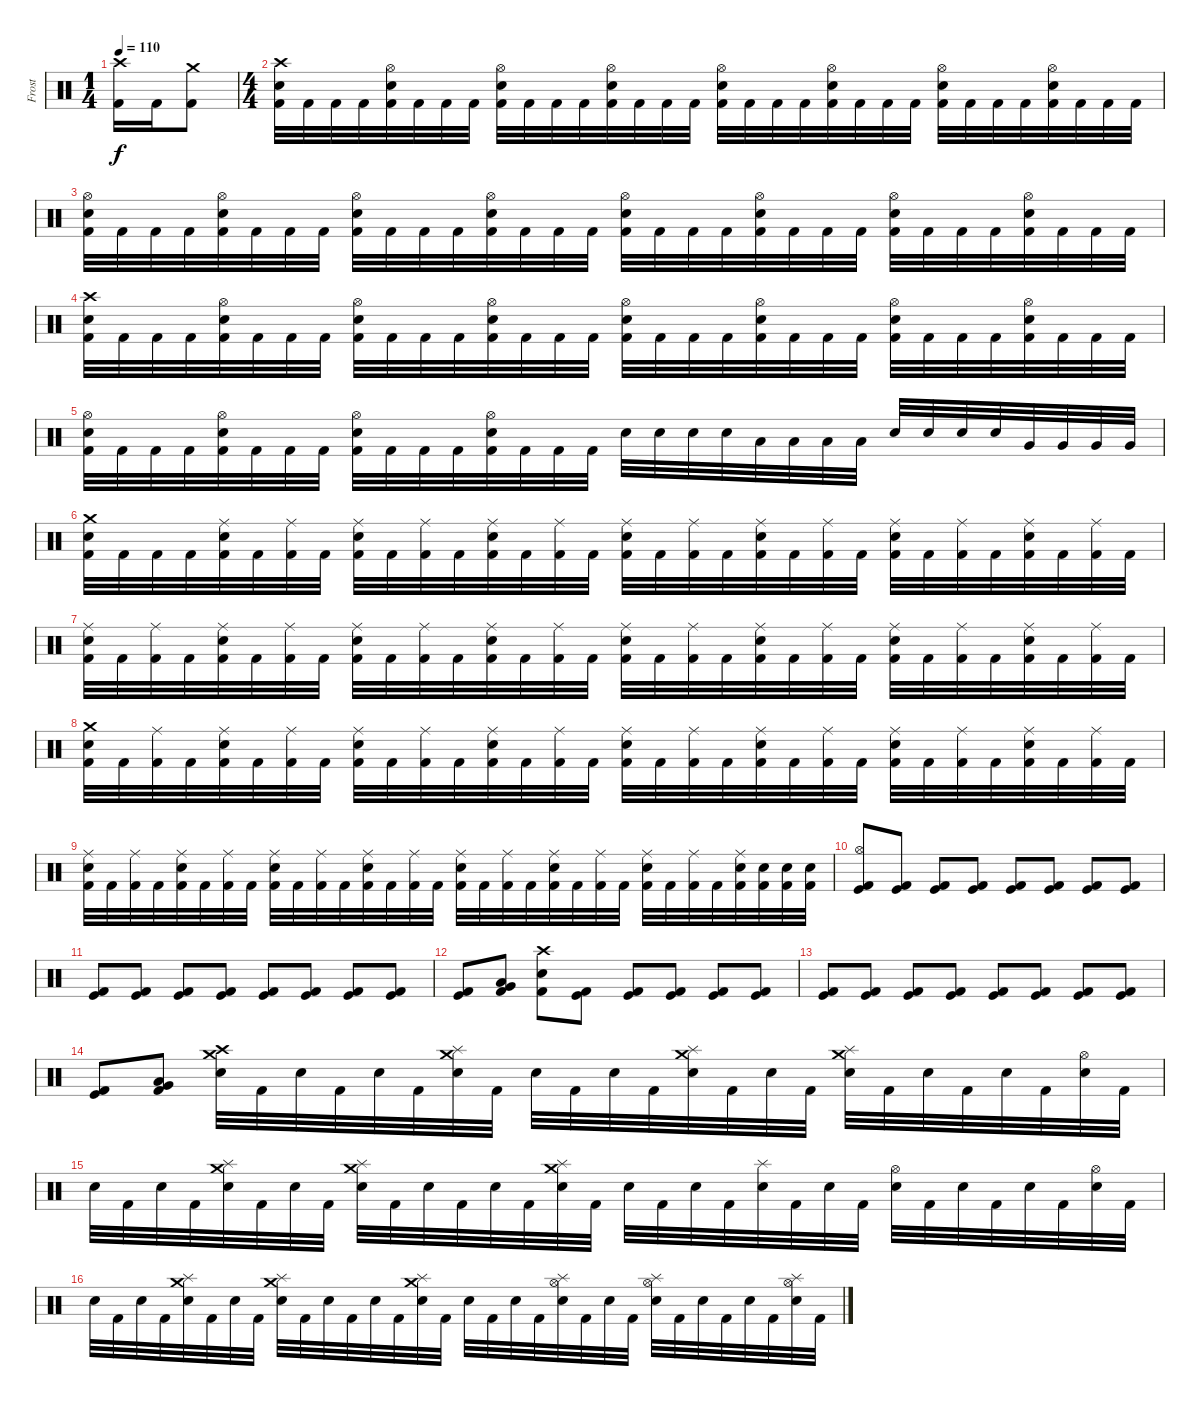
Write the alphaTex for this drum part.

\track ("Frost" "Frost") {instrument percussion}
\staff {score}
\articulation defaults
\ts (1 4)
\tempo 110
\clef neutral
\ks c
("Crash high (hit)" "Kick (hit) 2").16{dy f} "Kick (hit) 2".16 ("Crash medium (hit)" "Kick (hit) 2").8 |
\ts (4 4)
("Crash high (hit)" "Snare (hit) 2" "Kick (hit) 2").32 "Kick (hit) 2".32 "Kick (hit) 2".32 "Kick (hit) 2".32 ("Hi-Hat (open)" "Snare (hit) 2" "Kick (hit) 2").32 "Kick (hit) 2".32 "Kick (hit) 2".32 "Kick (hit) 2".32 ("Hi-Hat (open)" "Snare (hit) 2" "Kick (hit) 2").32 "Kick (hit) 2".32 "Kick (hit) 2".32 "Kick (hit) 2".32 ("Hi-Hat (open)" "Snare (hit) 2" "Kick (hit) 2").32 "Kick (hit) 2".32 "Kick (hit) 2".32 "Kick (hit) 2".32 ("Hi-Hat (open)" "Snare (hit) 2" "Kick (hit) 2").32 "Kick (hit) 2".32 "Kick (hit) 2".32 "Kick (hit) 2".32 ("Hi-Hat (open)" "Snare (hit) 2" "Kick (hit) 2").32 "Kick (hit) 2".32 "Kick (hit) 2".32 "Kick (hit) 2".32 ("Hi-Hat (open)" "Snare (hit) 2" "Kick (hit) 2").32 "Kick (hit) 2".32 "Kick (hit) 2".32 "Kick (hit) 2".32 ("Hi-Hat (open)" "Snare (hit) 2" "Kick (hit) 2").32 "Kick (hit) 2".32 "Kick (hit) 2".32 "Kick (hit) 2".32 |
("Hi-Hat (open)" "Snare (hit) 2" "Kick (hit) 2").32 "Kick (hit) 2".32 "Kick (hit) 2".32 "Kick (hit) 2".32 ("Hi-Hat (open)" "Snare (hit) 2" "Kick (hit) 2").32 "Kick (hit) 2".32 "Kick (hit) 2".32 "Kick (hit) 2".32 ("Hi-Hat (open)" "Snare (hit) 2" "Kick (hit) 2").32 "Kick (hit) 2".32 "Kick (hit) 2".32 "Kick (hit) 2".32 ("Hi-Hat (open)" "Snare (hit) 2" "Kick (hit) 2").32 "Kick (hit) 2".32 "Kick (hit) 2".32 "Kick (hit) 2".32 ("Hi-Hat (open)" "Snare (hit) 2" "Kick (hit) 2").32 "Kick (hit) 2".32 "Kick (hit) 2".32 "Kick (hit) 2".32 ("Hi-Hat (open)" "Snare (hit) 2" "Kick (hit) 2").32 "Kick (hit) 2".32 "Kick (hit) 2".32 "Kick (hit) 2".32 ("Hi-Hat (open)" "Snare (hit) 2" "Kick (hit) 2").32 "Kick (hit) 2".32 "Kick (hit) 2".32 "Kick (hit) 2".32 ("Hi-Hat (open)" "Snare (hit) 2" "Kick (hit) 2").32 "Kick (hit) 2".32 "Kick (hit) 2".32 "Kick (hit) 2".32 |
("Crash high (hit)" "Snare (hit) 2" "Kick (hit) 2").32 "Kick (hit) 2".32 "Kick (hit) 2".32 "Kick (hit) 2".32 ("Hi-Hat (open)" "Snare (hit) 2" "Kick (hit) 2").32 "Kick (hit) 2".32 "Kick (hit) 2".32 "Kick (hit) 2".32 ("Hi-Hat (open)" "Snare (hit) 2" "Kick (hit) 2").32 "Kick (hit) 2".32 "Kick (hit) 2".32 "Kick (hit) 2".32 ("Hi-Hat (open)" "Snare (hit) 2" "Kick (hit) 2").32 "Kick (hit) 2".32 "Kick (hit) 2".32 "Kick (hit) 2".32 ("Hi-Hat (open)" "Snare (hit) 2" "Kick (hit) 2").32 "Kick (hit) 2".32 "Kick (hit) 2".32 "Kick (hit) 2".32 ("Hi-Hat (open)" "Snare (hit) 2" "Kick (hit) 2").32 "Kick (hit) 2".32 "Kick (hit) 2".32 "Kick (hit) 2".32 ("Hi-Hat (open)" "Snare (hit) 2" "Kick (hit) 2").32 "Kick (hit) 2".32 "Kick (hit) 2".32 "Kick (hit) 2".32 ("Hi-Hat (open)" "Snare (hit) 2" "Kick (hit) 2").32 "Kick (hit) 2".32 "Kick (hit) 2".32 "Kick (hit) 2".32 |
("Hi-Hat (open)" "Snare (hit) 2" "Kick (hit) 2").32 "Kick (hit) 2".32 "Kick (hit) 2".32 "Kick (hit) 2".32 ("Hi-Hat (open)" "Snare (hit) 2" "Kick (hit) 2").32 "Kick (hit) 2".32 "Kick (hit) 2".32 "Kick (hit) 2".32 ("Hi-Hat (open)" "Snare (hit) 2" "Kick (hit) 2").32 "Kick (hit) 2".32 "Kick (hit) 2".32 "Kick (hit) 2".32 ("Hi-Hat (open)" "Snare (hit) 2" "Kick (hit) 2").32 "Kick (hit) 2".32 "Kick (hit) 2".32 "Kick (hit) 2".32 "Snare (hit) 2".32 "Snare (hit) 2".32 "Snare (hit) 2".32 "Snare (hit) 2".32 "Low Tom (hit)".32 "Low Tom (hit)".32 "Low Tom (hit)".32 "Low Tom (hit)".32 "Snare (hit) 2".32 "Snare (hit) 2".32 "Snare (hit) 2".32 "Snare (hit) 2".32 "Very Low Tom (hit)".32 "Very Low Tom (hit)".32 "Very Low Tom (hit)".32 "Very Low Tom (hit)".32 |
("Crash medium (hit)" "Snare (hit) 2" "Kick (hit) 2").32 "Kick (hit) 2".32 "Kick (hit) 2".32 "Kick (hit) 2".32 ("Ride (middle)" "Snare (hit) 2" "Kick (hit) 2").32 "Kick (hit) 2".32 ("Ride (middle)" "Kick (hit) 2").32 "Kick (hit) 2".32 ("Ride (middle)" "Snare (hit) 2" "Kick (hit) 2").32 "Kick (hit) 2".32 ("Ride (middle)" "Kick (hit) 2").32 "Kick (hit) 2".32 ("Ride (middle)" "Snare (hit) 2" "Kick (hit) 2").32 "Kick (hit) 2".32 ("Ride (middle)" "Kick (hit) 2").32 "Kick (hit) 2".32 ("Ride (middle)" "Snare (hit) 2" "Kick (hit) 2").32 "Kick (hit) 2".32 ("Ride (middle)" "Kick (hit) 2").32 "Kick (hit) 2".32 ("Ride (middle)" "Snare (hit) 2" "Kick (hit) 2").32 "Kick (hit) 2".32 ("Ride (middle)" "Kick (hit) 2").32 "Kick (hit) 2".32 ("Ride (middle)" "Snare (hit) 2" "Kick (hit) 2").32 "Kick (hit) 2".32 ("Ride (middle)" "Kick (hit) 2").32 "Kick (hit) 2".32 ("Ride (middle)" "Snare (hit) 2" "Kick (hit) 2").32 "Kick (hit) 2".32 ("Ride (middle)" "Kick (hit) 2").32 "Kick (hit) 2".32 |
("Ride (middle)" "Snare (hit) 2" "Kick (hit) 2").32 "Kick (hit) 2".32 ("Ride (middle)" "Kick (hit) 2").32 "Kick (hit) 2".32 ("Ride (middle)" "Snare (hit) 2" "Kick (hit) 2").32 "Kick (hit) 2".32 ("Ride (middle)" "Kick (hit) 2").32 "Kick (hit) 2".32 ("Ride (middle)" "Snare (hit) 2" "Kick (hit) 2").32 "Kick (hit) 2".32 ("Ride (middle)" "Kick (hit) 2").32 "Kick (hit) 2".32 ("Ride (middle)" "Snare (hit) 2" "Kick (hit) 2").32 "Kick (hit) 2".32 ("Ride (middle)" "Kick (hit) 2").32 "Kick (hit) 2".32 ("Ride (middle)" "Snare (hit) 2" "Kick (hit) 2").32 "Kick (hit) 2".32 ("Ride (middle)" "Kick (hit) 2").32 "Kick (hit) 2".32 ("Ride (middle)" "Snare (hit) 2" "Kick (hit) 2").32 "Kick (hit) 2".32 ("Ride (middle)" "Kick (hit) 2").32 "Kick (hit) 2".32 ("Ride (middle)" "Snare (hit) 2" "Kick (hit) 2").32 "Kick (hit) 2".32 ("Ride (middle)" "Kick (hit) 2").32 "Kick (hit) 2".32 ("Ride (middle)" "Snare (hit) 2" "Kick (hit) 2").32 "Kick (hit) 2".32 ("Ride (middle)" "Kick (hit) 2").32 "Kick (hit) 2".32 |
("Crash medium (hit)" "Snare (hit) 2" "Kick (hit) 2").32 "Kick (hit) 2".32 ("Ride (middle)" "Kick (hit) 2").32 "Kick (hit) 2".32 ("Ride (middle)" "Snare (hit) 2" "Kick (hit) 2").32 "Kick (hit) 2".32 ("Ride (middle)" "Kick (hit) 2").32 "Kick (hit) 2".32 ("Ride (middle)" "Snare (hit) 2" "Kick (hit) 2").32 "Kick (hit) 2".32 ("Ride (middle)" "Kick (hit) 2").32 "Kick (hit) 2".32 ("Ride (middle)" "Snare (hit) 2" "Kick (hit) 2").32 "Kick (hit) 2".32 ("Ride (middle)" "Kick (hit) 2").32 "Kick (hit) 2".32 ("Ride (middle)" "Snare (hit) 2" "Kick (hit) 2").32 "Kick (hit) 2".32 ("Ride (middle)" "Kick (hit) 2").32 "Kick (hit) 2".32 ("Ride (middle)" "Snare (hit) 2" "Kick (hit) 2").32 "Kick (hit) 2".32 ("Ride (middle)" "Kick (hit) 2").32 "Kick (hit) 2".32 ("Ride (middle)" "Snare (hit) 2" "Kick (hit) 2").32 "Kick (hit) 2".32 ("Ride (middle)" "Kick (hit) 2").32 "Kick (hit) 2".32 ("Ride (middle)" "Snare (hit) 2" "Kick (hit) 2").32 "Kick (hit) 2".32 ("Ride (middle)" "Kick (hit) 2").32 "Kick (hit) 2".32 |
("Ride (middle)" "Snare (hit) 2" "Kick (hit) 2").32 "Kick (hit) 2".32 ("Ride (middle)" "Kick (hit) 2").32 "Kick (hit) 2".32 ("Ride (middle)" "Snare (hit) 2" "Kick (hit) 2").32 "Kick (hit) 2".32 ("Ride (middle)" "Kick (hit) 2").32 "Kick (hit) 2".32 ("Ride (middle)" "Snare (hit) 2" "Kick (hit) 2").32 "Kick (hit) 2".32 ("Ride (middle)" "Kick (hit) 2").32 "Kick (hit) 2".32 ("Ride (middle)" "Snare (hit) 2" "Kick (hit) 2").32 "Kick (hit) 2".32 ("Ride (middle)" "Kick (hit) 2").32 "Kick (hit) 2".32 ("Ride (middle)" "Snare (hit) 2" "Kick (hit) 2").32 "Kick (hit) 2".32 ("Ride (middle)" "Kick (hit) 2").32 "Kick (hit) 2".32 ("Ride (middle)" "Snare (hit) 2" "Kick (hit) 2").32 "Kick (hit) 2".32 ("Ride (middle)" "Kick (hit) 2").32 "Kick (hit) 2".32 ("Ride (middle)" "Snare (hit) 2" "Kick (hit) 2").32 "Kick (hit) 2".32 ("Ride (middle)" "Kick (hit) 2").32 "Kick (hit) 2".32 ("Ride (middle)" "Snare (hit) 2" "Kick (hit) 2").32 ("Snare (hit) 2" "Kick (hit) 2").32 ("Snare (hit) 2" "Kick (hit) 2").32 ("Snare (hit) 2" "Kick (hit) 2").32 |
("Hi-Hat (open)" "Kick (hit)" "Kick (hit) 2").8 ("Kick (hit)" "Kick (hit) 2").8 ("Kick (hit)" "Kick (hit) 2").8 ("Kick (hit)" "Kick (hit) 2").8 ("Kick (hit)" "Kick (hit) 2").8 ("Kick (hit)" "Kick (hit) 2").8 ("Kick (hit)" "Kick (hit) 2").8 ("Kick (hit)" "Kick (hit) 2").8 |
("Kick (hit)" "Kick (hit) 2").8 ("Kick (hit)" "Kick (hit) 2").8 ("Kick (hit)" "Kick (hit) 2").8 ("Kick (hit)" "Kick (hit) 2").8 ("Kick (hit)" "Kick (hit) 2").8 ("Kick (hit)" "Kick (hit) 2").8 ("Kick (hit)" "Kick (hit) 2").8 ("Kick (hit)" "Kick (hit) 2").8 |
("Kick (hit)" "Kick (hit) 2").8 ("Low Tom (hit)" "Very Low Tom (hit)" "Kick (hit) 2").8 ("Crash high (hit)" "Snare (hit) 2" "Kick (hit) 2").8 ("Kick (hit)" "Kick (hit) 2").8 ("Kick (hit)" "Kick (hit) 2").8 ("Kick (hit)" "Kick (hit) 2").8 ("Kick (hit)" "Kick (hit) 2").8 ("Kick (hit)" "Kick (hit) 2").8 |
("Kick (hit)" "Kick (hit) 2").8 ("Kick (hit)" "Kick (hit) 2").8 ("Kick (hit)" "Kick (hit) 2").8 ("Kick (hit)" "Kick (hit) 2").8 ("Kick (hit)" "Kick (hit) 2").8 ("Kick (hit)" "Kick (hit) 2").8 ("Kick (hit)" "Kick (hit) 2").8 ("Kick (hit)" "Kick (hit) 2").8 |
("Kick (hit)" "Kick (hit) 2").8 ("Low Tom (hit)" "Very Low Tom (hit)" "Kick (hit) 2").8 ("Crash medium (hit)" "Crash high (hit)" "Snare (hit) 2").32 "Kick (hit) 2".32 "Snare (hit) 2".32 "Kick (hit) 2".32 "Snare (hit) 2".32 "Kick (hit) 2".32 ("Crash medium (hit)" "Splash (hit)" "Snare (hit) 2").32 "Kick (hit) 2".32 "Snare (hit) 2".32 "Kick (hit) 2".32 "Snare (hit) 2".32 "Kick (hit) 2".32 ("Crash medium (hit)" "Splash (hit)" "Snare (hit) 2").32 "Kick (hit) 2".32 "Snare (hit) 2".32 "Kick (hit) 2".32 ("Crash medium (hit)" "Splash (hit)" "Snare (hit) 2").32 "Kick (hit) 2".32 "Snare (hit) 2".32 "Kick (hit) 2".32 "Snare (hit) 2".32 "Kick (hit) 2".32 ("Hi-Hat (open)" "Snare (hit) 2").32 "Kick (hit) 2".32 |
"Snare (hit) 2".32 "Kick (hit) 2".32 "Snare (hit) 2".32 "Kick (hit) 2".32 ("Crash medium (hit)" "Splash (hit)" "Snare (hit) 2").32 "Kick (hit) 2".32 "Snare (hit) 2".32 "Kick (hit) 2".32 ("Crash medium (hit)" "Splash (hit)" "Snare (hit) 2").32 "Kick (hit) 2".32 "Snare (hit) 2".32 "Kick (hit) 2".32 "Snare (hit) 2".32 "Kick (hit) 2".32 ("Crash medium (hit)" "Splash (hit)" "Snare (hit) 2").32 "Kick (hit) 2".32 "Snare (hit) 2".32 "Kick (hit) 2".32 "Snare (hit) 2".32 "Kick (hit) 2".32 ("Splash (hit)" "Snare (hit) 2").32 "Kick (hit) 2".32 "Snare (hit) 2".32 "Kick (hit) 2".32 ("Hi-Hat (open)" "Snare (hit) 2").32 "Kick (hit) 2".32 "Snare (hit) 2".32 "Kick (hit) 2".32 "Snare (hit) 2".32 "Kick (hit) 2".32 ("Hi-Hat (open)" "Snare (hit) 2").32 "Kick (hit) 2".32 |
"Snare (hit) 2".32 "Kick (hit) 2".32 "Snare (hit) 2".32 "Kick (hit) 2".32 ("Crash medium (hit)" "Splash (hit)" "Snare (hit) 2").32 "Kick (hit) 2".32 "Snare (hit) 2".32 "Kick (hit) 2".32 ("Crash medium (hit)" "Splash (hit)" "Snare (hit) 2").32 "Kick (hit) 2".32 "Snare (hit) 2".32 "Kick (hit) 2".32 "Snare (hit) 2".32 "Kick (hit) 2".32 ("Crash medium (hit)" "Splash (hit)" "Snare (hit) 2").32 "Kick (hit) 2".32 "Snare (hit) 2".32 "Kick (hit) 2".32 "Snare (hit) 2".32 "Kick (hit) 2".32 ("Splash (hit)" "Hi-Hat (open)" "Snare (hit) 2").32 "Kick (hit) 2".32 "Snare (hit) 2".32 "Kick (hit) 2".32 ("Splash (hit)" "Hi-Hat (open)" "Snare (hit) 2").32 "Kick (hit) 2".32 "Snare (hit) 2".32 "Kick (hit) 2".32 "Snare (hit) 2".32 "Kick (hit) 2".32 ("Splash (hit)" "Hi-Hat (open)" "Snare (hit) 2").32 "Kick (hit) 2".32
